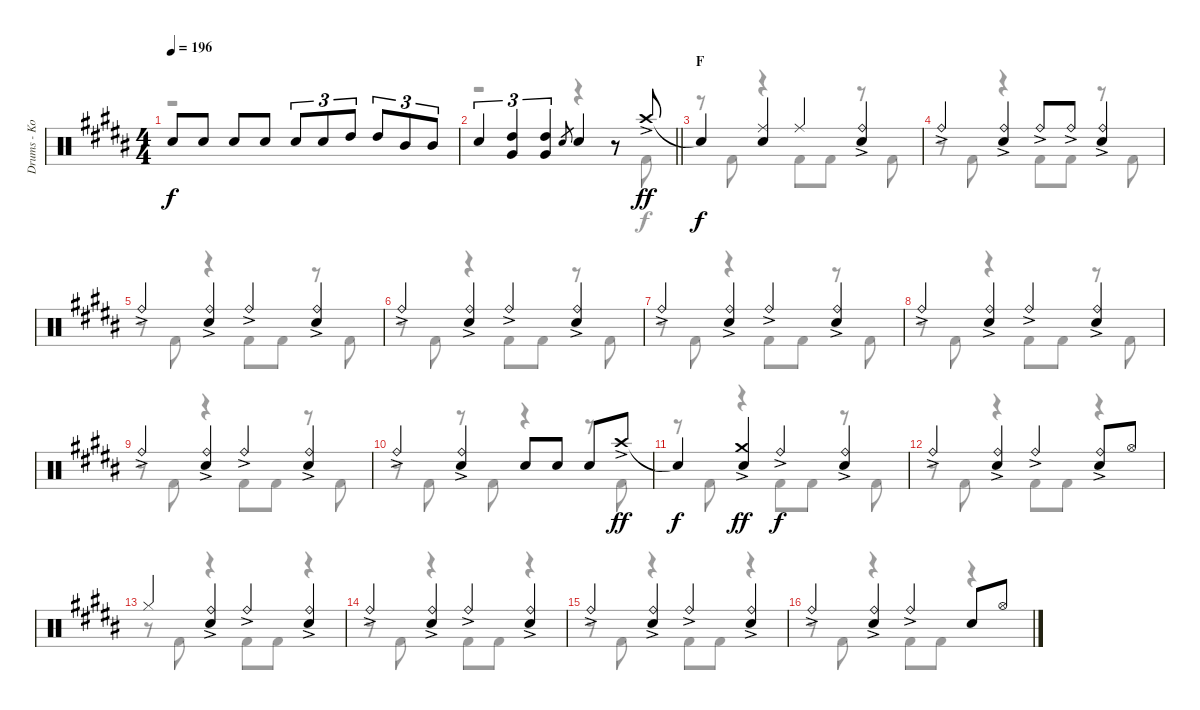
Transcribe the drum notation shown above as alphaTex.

\track ("Drums - Koji Hasegawa" "Drums - Ko") {instrument percussion}
\staff {score}
\articulation defaults
\voice
\ts (4 4)
\tempo 196
\clef neutral
\ks b "Snare (hit) 2".8{dy f} "Snare (hit) 2".8 "Snare (hit) 2".8 "Snare (hit) 2".8 "Snare (hit) 2".8{tu (3 2)} "Snare (hit) 2".8{tu (3 2)} "High Tom (hit)".8{tu (3 2)} "High Tom (hit)".8{tu (3 2)} "Mid Tom (hit)".8{tu (3 2)} "Mid Tom (hit)".8{tu (3 2)}
|
\barLineRight lightlight "Snare (hit) 2".4{tu (3 2)}
("High Tom (hit)" "Very Low Tom (hit)").4{tu (3 2)} ("High Tom (hit)" "Very Low Tom (hit)").4{tu (3 2)} "Snare (hit) 2".8{gr} "Snare (hit) 2".4 r.8 "Crash high (hit)"{ac}.8{dy ff} |
\section ("" "F")
"Snare (hit)"{t}.4{dy f} ("Ride (middle)" "Snare (hit) 2").4 "Ride (middle)".4 ("Ride (bell)"{ac} "Snare (hit) 2").4 |
"Ride (bell)"{ac}.4 ("Ride (bell)"{ac} "Snare (hit) 2").4 "Ride (bell)"{ac}.8 "Ride (bell)"{ac}.8 ("Ride (bell)"{ac} "Snare (hit) 2").4 |
"Ride (bell)"{ac}.4 ("Ride (bell)"{ac} "Snare (hit) 2").4 "Ride (bell)"{ac}.4 ("Ride (bell)"{ac} "Snare (hit) 2").4 |
"Ride (bell)"{ac}.4 ("Ride (bell)"{ac} "Snare (hit) 2").4 "Ride (bell)"{ac}.4 ("Ride (bell)"{ac} "Snare (hit) 2").4 |
"Ride (bell)"{ac}.4 ("Ride (bell)"{ac} "Snare (hit) 2").4 "Ride (bell)"{ac}.4 ("Ride (bell)"{ac} "Snare (hit) 2").4 |
"Ride (bell)"{ac}.4 ("Ride (bell)"{ac} "Snare (hit) 2").4 "Ride (bell)"{ac}.4 ("Ride (bell)"{ac} "Snare (hit) 2").4 |
"Ride (bell)"{ac}.4 ("Ride (bell)"{ac} "Snare (hit) 2").4 "Ride (bell)"{ac}.4 ("Ride (bell)"{ac} "Snare (hit) 2").4 |
"Ride (bell)"{ac}.4 ("Ride (bell)"{ac} "Snare (hit) 2").4 "Snare (hit) 2".8 "Snare (hit) 2".8 "Snare (hit) 2".8 "Crash high (hit)"{ac}.8{dy ff} |
"Snare (hit)"{t}.4{dy f} ("Crash medium (hit)"{ac} "Snare (hit) 2").4{dy ff} "Ride (bell)"{ac}.4{dy f} ("Ride (bell)"{ac} "Snare (hit) 2").4 |
"Ride (bell)"{ac}.4 ("Ride (bell)"{ac} "Snare (hit) 2").4 "Ride (bell)"{ac}.4 ("Ride (bell)"{ac} "Snare (hit) 2").8 "Hi-Hat (open)".8 |
"Hi-Hat (closed)".4 ("Ride (bell)"{ac} "Snare (hit) 2").4 "Ride (bell)"{ac}.4 ("Ride (bell)"{ac} "Snare (hit) 2").4 |
"Ride (bell)"{ac}.4 ("Ride (bell)"{ac} "Snare (hit) 2").4 "Ride (bell)"{ac}.4 ("Ride (bell)"{ac} "Snare (hit) 2").4 |
"Ride (bell)"{ac}.4 ("Ride (bell)"{ac} "Snare (hit) 2").4 "Ride (bell)"{ac}.4 ("Ride (bell)"{ac} "Snare (hit) 2").4 |
"Ride (bell)"{ac}.4 ("Ride (bell)"{ac} "Snare (hit) 2").4 "Ride (bell)"{ac}.4 "Snare (hit) 2".8 "Hi-Hat (open)".8
\voice
\clef neutral
\ottava regular
\simile none
\ks b
r.1{dy f} |
\barLineRight lightlight
r.2 r.4 r.8 "Kick (hit) 2".8 |
r.8 "Kick (hit) 2".8 r.4 "Kick (hit) 2".8 "Kick (hit) 2".8 r.8 "Kick (hit) 2".8 |
r.8 "Kick (hit) 2".8 r.4 "Kick (hit) 2".8 "Kick (hit) 2".8 r.8 "Kick (hit) 2".8 |
r.8 "Kick (hit) 2".8 r.4 "Kick (hit) 2".8 "Kick (hit) 2".8 r.8 "Kick (hit) 2".8 |
r.8 "Kick (hit) 2".8 r.4 "Kick (hit) 2".8 "Kick (hit) 2".8 r.8 "Kick (hit) 2".8 |
r.8 "Kick (hit) 2".8 r.4 "Kick (hit) 2".8 "Kick (hit) 2".8 r.8 "Kick (hit) 2".8 |
r.8 "Kick (hit) 2".8 r.4 "Kick (hit) 2".8 "Kick (hit) 2".8 r.8 "Kick (hit) 2".8 |
r.8 "Kick (hit) 2".8 r.4 "Kick (hit) 2".8 "Kick (hit) 2".8 r.8 "Kick (hit) 2".8 |
r.8 "Kick (hit) 2".8 r.8 "Kick (hit) 2".8 r.4 r.8 "Kick (hit) 2".8 |
r.8 "Kick (hit) 2".8 r.4 "Kick (hit) 2".8 "Kick (hit) 2".8 r.8 "Kick (hit) 2".8 |
r.8 "Kick (hit) 2".8 r.4 "Kick (hit) 2".8 "Kick (hit) 2".8 r.4 |
r.8 "Kick (hit) 2".8 r.4 "Kick (hit) 2".8 "Kick (hit) 2".8 r.4 |
r.8 "Kick (hit) 2".8 r.4 "Kick (hit) 2".8 "Kick (hit) 2".8 r.4 |
r.8 "Kick (hit) 2".8 r.4 "Kick (hit) 2".8 "Kick (hit) 2".8 r.4 |
r.8 "Kick (hit) 2".8 r.4 "Kick (hit) 2".8 "Kick (hit) 2".8 r.4
